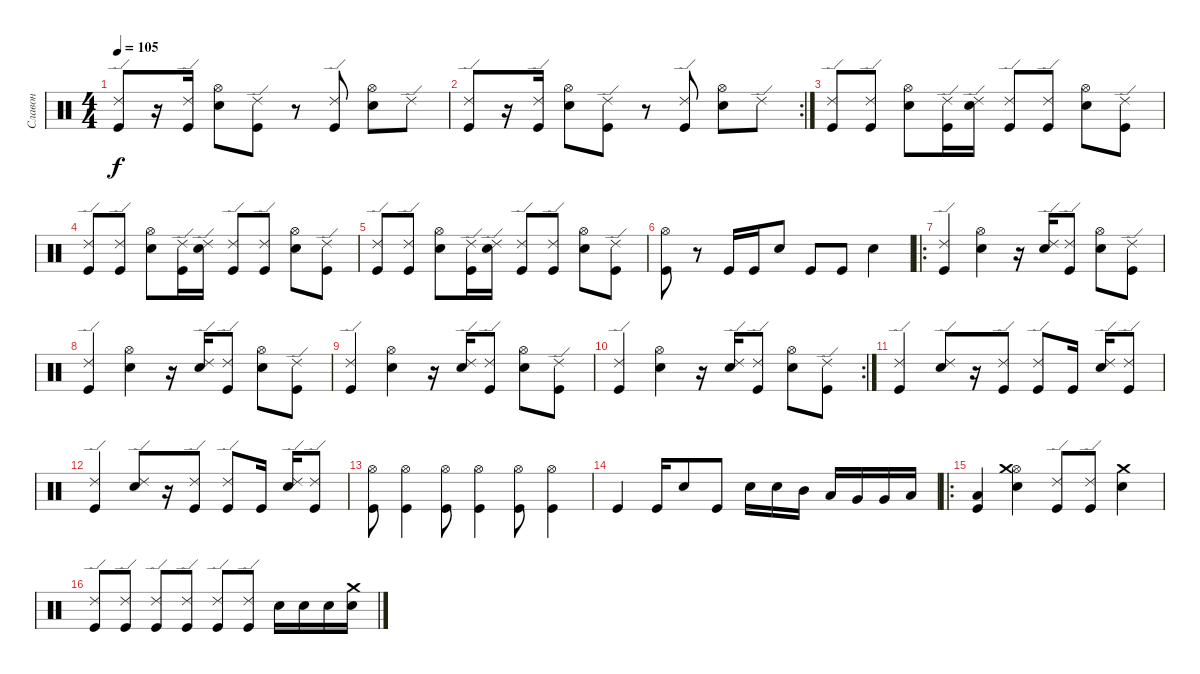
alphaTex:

\track ("Славон" "Славон") {instrument percussion}
\staff {score}
\articulation defaults
\ts (4 4)
\tempo 105
\clef neutral
\ks c
("Ride (edge) 2" "Kick (hit)").8{dy f} r.16 ("Ride (edge) 2" "Kick (hit)").16 ("Hi-Hat (open)" "Electric Snare (hit)").8 ("Ride (edge) 2" "Kick (hit)").8 r.8 ("Ride (edge) 2" "Kick (hit)").8 ("Hi-Hat (open)" "Electric Snare (hit)").8 "Ride (edge) 2".8 |
\rc 2
("Ride (edge) 2" "Kick (hit)").8 r.16 ("Ride (edge) 2" "Kick (hit)").16 ("Hi-Hat (open)" "Electric Snare (hit)").8 ("Ride (edge) 2" "Kick (hit)").8 r.8 ("Ride (edge) 2" "Kick (hit)").8 ("Hi-Hat (open)" "Electric Snare (hit)").8 "Ride (edge) 2".8 |
("Ride (edge) 2" "Kick (hit)").8 ("Ride (edge) 2" "Kick (hit)").8 ("Hi-Hat (open)" "Electric Snare (hit)").8 ("Ride (edge) 2" "Kick (hit)").16 ("Ride (edge) 2" "Electric Snare (hit)").16 ("Ride (edge) 2" "Kick (hit)").8 ("Ride (edge) 2" "Kick (hit)").8 ("Hi-Hat (open)" "Electric Snare (hit)").8 ("Ride (edge) 2" "Kick (hit)").8 |
("Ride (edge) 2" "Kick (hit)").8 ("Ride (edge) 2" "Kick (hit)").8 ("Hi-Hat (open)" "Electric Snare (hit)").8 ("Ride (edge) 2" "Kick (hit)").16 ("Ride (edge) 2" "Electric Snare (hit)").16 ("Ride (edge) 2" "Kick (hit)").8 ("Ride (edge) 2" "Kick (hit)").8 ("Hi-Hat (open)" "Electric Snare (hit)").8 ("Ride (edge) 2" "Kick (hit)").8 |
("Ride (edge) 2" "Kick (hit)").8 ("Ride (edge) 2" "Kick (hit)").8 ("Hi-Hat (open)" "Electric Snare (hit)").8 ("Ride (edge) 2" "Kick (hit)").16 ("Ride (edge) 2" "Electric Snare (hit)").16 ("Ride (edge) 2" "Kick (hit)").8 ("Ride (edge) 2" "Kick (hit)").8 ("Hi-Hat (open)" "Electric Snare (hit)").8 ("Ride (edge) 2" "Kick (hit)").8 |
("Hi-Hat (open)" "Kick (hit)").8 r.8 "Kick (hit)".16 "Kick (hit)".16 "Electric Snare (hit)".8 "Kick (hit)".8 "Kick (hit)".8 "Electric Snare (hit)".4 |
\ro
("Ride (edge) 2" "Kick (hit)").4 ("Hi-Hat (open)" "Electric Snare (hit)").4 r.16 ("Ride (edge) 2" "Electric Snare (hit)").16 ("Ride (edge) 2" "Kick (hit)").8 ("Hi-Hat (open)" "Electric Snare (hit)").8 ("Ride (edge) 2" "Kick (hit)").8 |
("Ride (edge) 2" "Kick (hit)").4 ("Hi-Hat (open)" "Electric Snare (hit)").4 r.16 ("Ride (edge) 2" "Electric Snare (hit)").16 ("Ride (edge) 2" "Kick (hit)").8 ("Hi-Hat (open)" "Electric Snare (hit)").8 ("Ride (edge) 2" "Kick (hit)").8 |
("Ride (edge) 2" "Kick (hit)").4 ("Hi-Hat (open)" "Electric Snare (hit)").4 r.16 ("Ride (edge) 2" "Electric Snare (hit)").16 ("Ride (edge) 2" "Kick (hit)").8 ("Hi-Hat (open)" "Electric Snare (hit)").8 ("Ride (edge) 2" "Kick (hit)").8 |
\rc 2
("Ride (edge) 2" "Kick (hit)").4 ("Hi-Hat (open)" "Electric Snare (hit)").4 r.16 ("Ride (edge) 2" "Electric Snare (hit)").16 ("Ride (edge) 2" "Kick (hit)").8 ("Hi-Hat (open)" "Electric Snare (hit)").8 ("Ride (edge) 2" "Kick (hit)").8 |
("Ride (edge) 2" "Kick (hit)").4 ("Ride (edge) 2" "Electric Snare (hit)").8 r.16 ("Ride (edge) 2" "Kick (hit)").8 ("Ride (edge) 2" "Kick (hit)").8 "Kick (hit)".16 ("Ride (edge) 2" "Electric Snare (hit)").16 ("Ride (edge) 2" "Kick (hit)").8 |
("Ride (edge) 2" "Kick (hit)").4 ("Ride (edge) 2" "Electric Snare (hit)").8 r.16 ("Ride (edge) 2" "Kick (hit)").8 ("Ride (edge) 2" "Kick (hit)").8 "Kick (hit)".16 ("Ride (edge) 2" "Electric Snare (hit)").16 ("Ride (edge) 2" "Kick (hit)").8 |
("Hi-Hat (open)" "Kick (hit)").8 ("Hi-Hat (open)" "Kick (hit)").4 ("Hi-Hat (open)" "Kick (hit)").8 ("Hi-Hat (open)" "Kick (hit)").4 ("Hi-Hat (open)" "Kick (hit)").8 ("Hi-Hat (open)" "Kick (hit)").4 |
"Kick (hit)".4 "Kick (hit)".16 "Electric Snare (hit)".8 "Kick (hit)".8 "Electric Snare (hit)".16 "Electric Snare (hit)".16 "Mid Tom (hit)".16 "Low Tom (hit)".16 "Very Low Tom (hit)".16 "Very Low Tom (hit)".16 "Low Floor Tom (hit)".16 |
\ro
("Low Floor Tom (hit)" "Kick (hit)").4 ("Hi-Hat (open)" "Crash medium (hit)" "Electric Snare (hit)").4 ("Ride (edge) 2" "Kick (hit)").8 ("Ride (edge) 2" "Kick (hit)").8 ("Crash medium (hit)" "Electric Snare (hit)").4 |
("Ride (edge) 2" "Kick (hit)").8 ("Ride (edge) 2" "Kick (hit)").8 ("Ride (edge) 2" "Kick (hit)").8 ("Ride (edge) 2" "Kick (hit)").8 ("Ride (edge) 2" "Kick (hit)").8 ("Ride (edge) 2" "Kick (hit)").8 "Electric Snare (hit)".16 "Electric Snare (hit)".16 "Electric Snare (hit)".16 ("Crash medium (hit)" "Electric Snare (hit)").16
